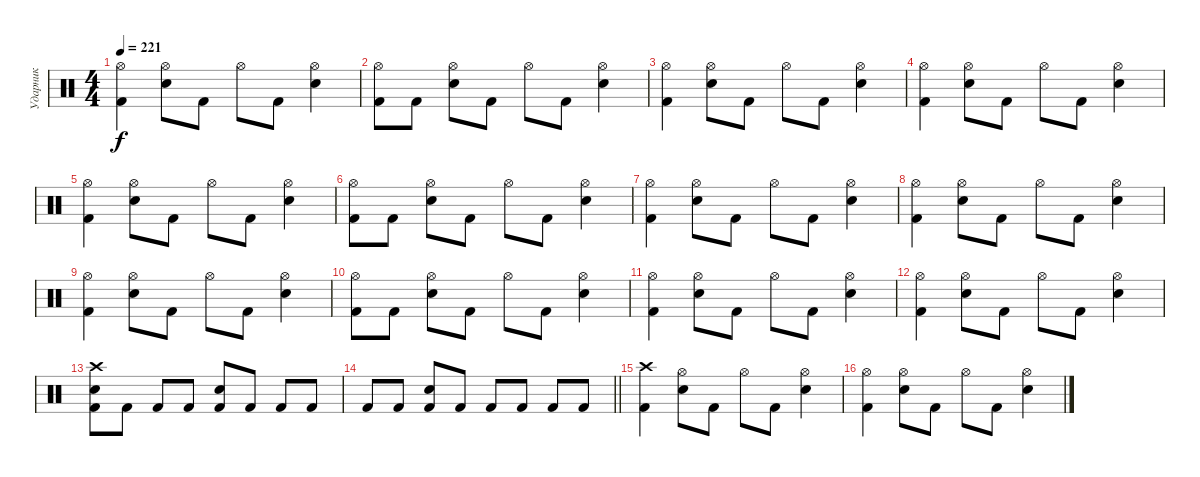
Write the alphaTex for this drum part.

\track ("Ударник" "Ударник") {instrument percussion}
\staff {score}
\articulation defaults
\ts (4 4)
\tempo 221
\clef neutral
\ks c
("Kick (hit) 2" "Hi-Hat (open)").4{dy f} ("Snare (hit) 2" "Hi-Hat (open)").8 "Kick (hit) 2".8 "Hi-Hat (open)".8 "Kick (hit) 2".8 ("Snare (hit) 2" "Hi-Hat (open)").4 |
("Kick (hit) 2" "Hi-Hat (open)").8 "Kick (hit) 2".8 ("Snare (hit) 2" "Hi-Hat (open)").8 "Kick (hit) 2".8 "Hi-Hat (open)".8 "Kick (hit) 2".8 ("Snare (hit) 2" "Hi-Hat (open)").4 |
("Kick (hit) 2" "Hi-Hat (open)").4 ("Snare (hit) 2" "Hi-Hat (open)").8 "Kick (hit) 2".8 "Hi-Hat (open)".8 "Kick (hit) 2".8 ("Snare (hit) 2" "Hi-Hat (open)").4 |
("Kick (hit) 2" "Hi-Hat (open)").4 ("Snare (hit) 2" "Hi-Hat (open)").8 "Kick (hit) 2".8 "Hi-Hat (open)".8 "Kick (hit) 2".8 ("Snare (hit) 2" "Hi-Hat (open)").4 |
("Kick (hit) 2" "Hi-Hat (open)").4 ("Snare (hit) 2" "Hi-Hat (open)").8 "Kick (hit) 2".8 "Hi-Hat (open)".8 "Kick (hit) 2".8 ("Snare (hit) 2" "Hi-Hat (open)").4 |
("Kick (hit) 2" "Hi-Hat (open)").8 "Kick (hit) 2".8 ("Snare (hit) 2" "Hi-Hat (open)").8 "Kick (hit) 2".8 "Hi-Hat (open)".8 "Kick (hit) 2".8 ("Snare (hit) 2" "Hi-Hat (open)").4 |
("Kick (hit) 2" "Hi-Hat (open)").4 ("Snare (hit) 2" "Hi-Hat (open)").8 "Kick (hit) 2".8 "Hi-Hat (open)".8 "Kick (hit) 2".8 ("Snare (hit) 2" "Hi-Hat (open)").4 |
("Kick (hit) 2" "Hi-Hat (open)").4 ("Snare (hit) 2" "Hi-Hat (open)").8 "Kick (hit) 2".8 "Hi-Hat (open)".8 "Kick (hit) 2".8 ("Snare (hit) 2" "Hi-Hat (open)").4 |
("Kick (hit) 2" "Hi-Hat (open)").4 ("Snare (hit) 2" "Hi-Hat (open)").8 "Kick (hit) 2".8 "Hi-Hat (open)".8 "Kick (hit) 2".8 ("Snare (hit) 2" "Hi-Hat (open)").4 |
("Kick (hit) 2" "Hi-Hat (open)").8 "Kick (hit) 2".8 ("Snare (hit) 2" "Hi-Hat (open)").8 "Kick (hit) 2".8 "Hi-Hat (open)".8 "Kick (hit) 2".8 ("Snare (hit) 2" "Hi-Hat (open)").4 |
("Kick (hit) 2" "Hi-Hat (open)").4 ("Snare (hit) 2" "Hi-Hat (open)").8 "Kick (hit) 2".8 "Hi-Hat (open)".8 "Kick (hit) 2".8 ("Snare (hit) 2" "Hi-Hat (open)").4 |
("Kick (hit) 2" "Hi-Hat (open)").4 ("Snare (hit) 2" "Hi-Hat (open)").8 "Kick (hit) 2".8 "Hi-Hat (open)".8 "Kick (hit) 2".8 ("Snare (hit) 2" "Hi-Hat (open)").4 |
("Kick (hit) 2" "Snare (hit) 2" "Crash high (hit)").8 "Kick (hit) 2".8 "Kick (hit) 2".8 "Kick (hit) 2".8 ("Kick (hit) 2" "Snare (hit) 2").8 "Kick (hit) 2".8 "Kick (hit) 2".8 "Kick (hit) 2".8 |
\barLineRight lightlight "Kick (hit) 2".8 "Kick (hit) 2".8
("Kick (hit) 2" "Snare (hit) 2").8 "Kick (hit) 2".8 "Kick (hit) 2".8 "Kick (hit) 2".8 "Kick (hit) 2".8 "Kick (hit) 2".8 |
("Kick (hit) 2" "Crash high (hit)").4 ("Snare (hit) 2" "Hi-Hat (open)").8 "Kick (hit) 2".8 "Hi-Hat (open)".8 "Kick (hit) 2".8 ("Snare (hit) 2" "Hi-Hat (open)").4 |
("Kick (hit) 2" "Hi-Hat (open)").4 ("Snare (hit) 2" "Hi-Hat (open)").8 "Kick (hit) 2".8 "Hi-Hat (open)".8 "Kick (hit) 2".8 ("Snare (hit) 2" "Hi-Hat (open)").4
